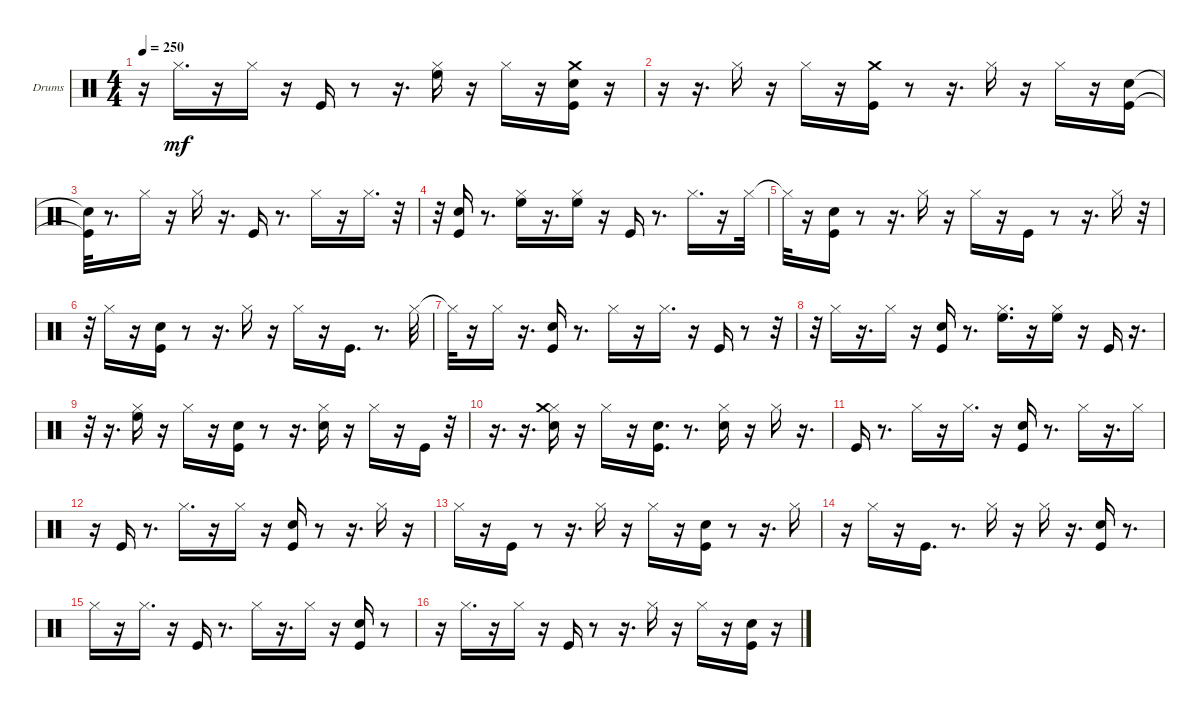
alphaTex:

\bracketExtendMode groupsimilarinstruments
\firstSystemTrackNameOrientation horizontal
\otherSystemsTrackNameOrientation horizontal
\track ("Drums" "Drums") {instrument percussion}
\staff {score}
\articulation defaults
\ts (4 4)
\tempo 250
\clef neutral
\ks c
r.16{dy mf} "Hi-Hat (closed)".16{d} r.16 "Hi-Hat (closed)".16 r.16 "Kick (hit)".16 r.8 r.16{d} ("High Floor Tom (hit)" "Hi-Hat (closed)").16 r.16 "Hi-Hat (closed)".16 r.16 ("Kick (hit)" "Crash medium (hit)" "Snare (hit) 2").16 r.16 |
r.16 r.16{d} "Hi-Hat (closed)".16 r.16 "Hi-Hat (closed)".16 r.16 ("Kick (hit)" "Crash medium (hit)").16 r.8 r.16{d} "Hi-Hat (closed)".16 r.16 "Hi-Hat (closed)".16 r.16 ("Kick (hit)" "Snare (hit) 2").16 |
("Kick (hit)"{t} "Snare (hit) 2"{t}).32 r.8{d} "Hi-Hat (closed)".16 r.16 "Hi-Hat (closed)".16 r.16{d} "Kick (hit)".16 r.8{d} "Hi-Hat (closed)".16 r.16 "Hi-Hat (closed)".16{d} r.32 |
r.32 ("Kick (hit)" "Snare (hit) 2").16 r.8{d} ("High Floor Tom (hit)" "Hi-Hat (closed)").16 r.16{d} ("High Floor Tom (hit)" "Hi-Hat (closed)").16 r.16 "Kick (hit)".16 r.8{d} "Hi-Hat (closed)".16{d} r.16 "Hi-Hat (closed)".32 |
"Hi-Hat (closed)"{t}.32 r.16 ("Kick (hit)" "Snare (hit) 2").16 r.8 r.16{d} "Hi-Hat (closed)".16 r.16 "Hi-Hat (closed)".16 r.16 "Kick (hit)".16 r.8 r.16{d} "Hi-Hat (closed)".16 r.32 |
r.32 "Hi-Hat (closed)".16 r.16 ("Kick (hit)" "Snare (hit) 2").16 r.8 r.16{d} "Hi-Hat (closed)".16 r.16 "Hi-Hat (closed)".16 r.16 "Kick (hit)".16{d} r.8{d} "Hi-Hat (closed)".32 |
"Hi-Hat (closed)"{t}.32 r.16 "Hi-Hat (closed)".16 r.16{d} ("Kick (hit)" "Snare (hit) 2").16 r.8{d} "Hi-Hat (closed)".16 r.16 "Hi-Hat (closed)".16{d} r.16 "Kick (hit)".16 r.8 r.32 |
r.32 "Hi-Hat (closed)".16 r.16{d} "Hi-Hat (closed)".16 r.16 ("Kick (hit)" "Snare (hit) 2").16 r.8{d} ("High Floor Tom (hit)" "Hi-Hat (closed)").16{d} r.16 ("High Floor Tom (hit)" "Hi-Hat (closed)").16 r.16 "Kick (hit)".16 r.16{d} |
r.32 r.16{d} ("High Floor Tom (hit)" "Hi-Hat (closed)").16 r.16 "Hi-Hat (closed)".16 r.16 ("Kick (hit)" "Snare (hit) 2").16 r.8 r.16{d} ("Hi-Hat (closed)" "Snare (hit) 2").16 r.16 "Hi-Hat (closed)".16 r.16 "Kick (hit)".16 r.32 |
r.16{d} r.16{d} ("Hi-Hat (closed)" "Snare (hit) 2" "Crash medium (hit)").16 r.16 "Hi-Hat (closed)".16 r.16 ("Kick (hit)" "Snare (hit) 2").16{d} r.8{d} ("Hi-Hat (closed)" "Snare (hit) 2").16 r.16 "Hi-Hat (closed)".16 r.16{d} |
"Kick (hit)".16 r.8{d} "Hi-Hat (closed)".16 r.16 "Hi-Hat (closed)".16{d} r.16 ("Kick (hit)" "Snare (hit) 2").16 r.8{d} "Hi-Hat (closed)".16 r.16{d} "Hi-Hat (closed)".16 |
r.16 "Kick (hit)".16 r.8{d} "Hi-Hat (closed)".16{d} r.16 "Hi-Hat (closed)".16 r.16 ("Kick (hit)" "Snare (hit) 2").16 r.8 r.16{d} "Hi-Hat (closed)".16 r.16 |
"Hi-Hat (closed)".16 r.16 "Kick (hit)".16 r.8 r.16{d} "Hi-Hat (closed)".16 r.16 "Hi-Hat (closed)".16 r.16 ("Kick (hit)" "Snare (hit) 2").16 r.8 r.16{d} "Hi-Hat (closed)".16 |
r.16 "Hi-Hat (closed)".16 r.16 "Kick (hit)".16{d} r.8{d} "Hi-Hat (closed)".16 r.16 "Hi-Hat (closed)".16 r.16{d} ("Kick (hit)" "Snare (hit) 2").16 r.8{d} |
"Hi-Hat (closed)".16 r.16 "Hi-Hat (closed)".16{d} r.16 "Kick (hit)".16 r.8{d} "Hi-Hat (closed)".16 r.16{d} "Hi-Hat (closed)".16 r.16 ("Kick (hit)" "Snare (hit) 2").16 r.8 |
r.16 "Hi-Hat (closed)".16{d} r.16 "Hi-Hat (closed)".16 r.16 "Kick (hit)".16 r.8 r.16{d} "Hi-Hat (closed)".16 r.16 "Hi-Hat (closed)".16 r.16 ("Kick (hit)" "Snare (hit) 2").16 r.16
